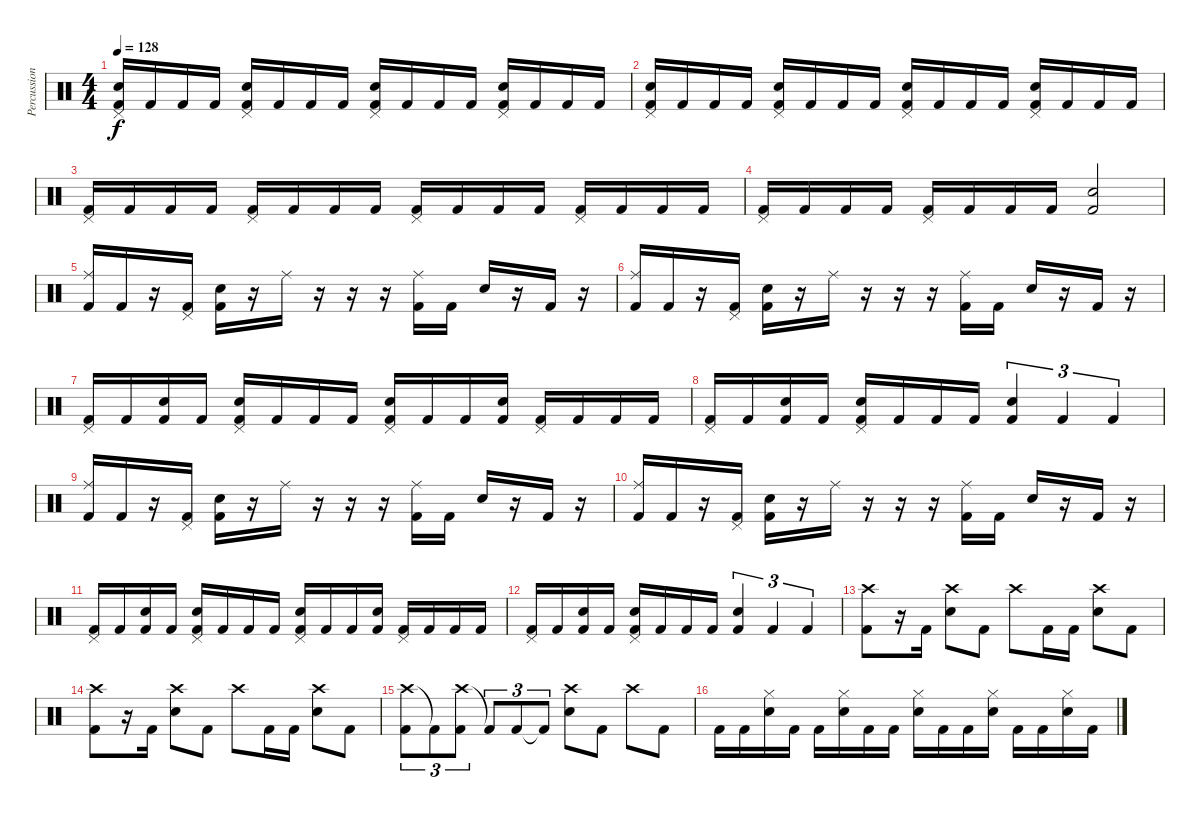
\track ("Percussion" "Percussion") {instrument percussion}
\staff {score}
\articulation defaults
\ts (4 4)
\tempo 128
\clef neutral
\ks c
("Pedal Hi-Hat (hit)" "Snare (hit) 2" "Kick (hit) 2").16{dy f} "Kick (hit) 2".16 "Kick (hit) 2".16 "Kick (hit) 2".16 ("Pedal Hi-Hat (hit)" "Snare (hit) 2" "Kick (hit) 2").16 "Kick (hit) 2".16 "Kick (hit) 2".16 "Kick (hit) 2".16 ("Pedal Hi-Hat (hit)" "Snare (hit) 2" "Kick (hit) 2").16 "Kick (hit) 2".16 "Kick (hit) 2".16 "Kick (hit) 2".16 ("Pedal Hi-Hat (hit)" "Snare (hit) 2" "Kick (hit) 2").16 "Kick (hit) 2".16 "Kick (hit) 2".16 "Kick (hit) 2".16 |
("Pedal Hi-Hat (hit)" "Snare (hit) 2" "Kick (hit) 2").16 "Kick (hit) 2".16 "Kick (hit) 2".16 "Kick (hit) 2".16 ("Pedal Hi-Hat (hit)" "Snare (hit) 2" "Kick (hit) 2").16 "Kick (hit) 2".16 "Kick (hit) 2".16 "Kick (hit) 2".16 ("Pedal Hi-Hat (hit)" "Snare (hit) 2" "Kick (hit) 2").16 "Kick (hit) 2".16 "Kick (hit) 2".16 "Kick (hit) 2".16 ("Pedal Hi-Hat (hit)" "Snare (hit) 2" "Kick (hit) 2").16 "Kick (hit) 2".16 "Kick (hit) 2".16 "Kick (hit) 2".16 |
("Pedal Hi-Hat (hit)" "Kick (hit) 2").16 "Kick (hit) 2".16 "Kick (hit) 2".16 "Kick (hit) 2".16 ("Pedal Hi-Hat (hit)" "Kick (hit) 2").16 "Kick (hit) 2".16 "Kick (hit) 2".16 "Kick (hit) 2".16 ("Pedal Hi-Hat (hit)" "Kick (hit) 2").16 "Kick (hit) 2".16 "Kick (hit) 2".16 "Kick (hit) 2".16 ("Pedal Hi-Hat (hit)" "Kick (hit) 2").16 "Kick (hit) 2".16 "Kick (hit) 2".16 "Kick (hit) 2".16 |
("Pedal Hi-Hat (hit)" "Kick (hit) 2").16 "Kick (hit) 2".16 "Kick (hit) 2".16 "Kick (hit) 2".16 ("Pedal Hi-Hat (hit)" "Kick (hit) 2").16 "Kick (hit) 2".16 "Kick (hit) 2".16 "Kick (hit) 2".16 ("Snare (hit) 2" "Kick (hit) 2").2 |
("Ride (middle)" "Kick (hit) 2").16 "Kick (hit) 2".16 r.16 ("Pedal Hi-Hat (hit)" "Kick (hit) 2").16 ("Snare (hit) 2" "Kick (hit) 2").16 r.16 "Ride (middle)".16 r.16 r.16 r.16 ("Ride (middle)" "Kick (hit) 2").16 "Kick (hit) 2".16 "Snare (hit) 2".16 r.16 "Kick (hit) 2".16 r.16 |
("Ride (middle)" "Kick (hit) 2").16 "Kick (hit) 2".16 r.16 ("Pedal Hi-Hat (hit)" "Kick (hit) 2").16 ("Snare (hit) 2" "Kick (hit) 2").16 r.16 "Ride (middle)".16 r.16 r.16 r.16 ("Ride (middle)" "Kick (hit) 2").16 "Kick (hit) 2".16 "Snare (hit) 2".16 r.16 "Kick (hit) 2".16 r.16 |
("Pedal Hi-Hat (hit)" "Kick (hit) 2").16 "Kick (hit) 2".16 ("Snare (hit) 2" "Kick (hit) 2").16 "Kick (hit) 2".16 ("Pedal Hi-Hat (hit)" "Snare (hit) 2" "Kick (hit) 2").16 "Kick (hit) 2".16 "Kick (hit) 2".16 "Kick (hit) 2".16 ("Pedal Hi-Hat (hit)" "Snare (hit) 2" "Kick (hit) 2").16 "Kick (hit) 2".16 "Kick (hit) 2".16 ("Snare (hit) 2" "Kick (hit) 2").16 ("Pedal Hi-Hat (hit)" "Kick (hit) 2").16 "Kick (hit) 2".16 "Kick (hit) 2".16 "Kick (hit) 2".16 |
("Pedal Hi-Hat (hit)" "Kick (hit) 2").16 "Kick (hit) 2".16 ("Snare (hit) 2" "Kick (hit) 2").16 "Kick (hit) 2".16 ("Pedal Hi-Hat (hit)" "Snare (hit) 2" "Kick (hit) 2").16 "Kick (hit) 2".16 "Kick (hit) 2".16 "Kick (hit) 2".16 ("Snare (hit) 2" "Kick (hit) 2").4{tu (3 2)} "Kick (hit) 2".4{tu (3 2)} "Kick (hit) 2".4{tu (3 2)} |
("Ride (middle)" "Kick (hit) 2").16 "Kick (hit) 2".16 r.16 ("Pedal Hi-Hat (hit)" "Kick (hit) 2").16 ("Snare (hit) 2" "Kick (hit) 2").16 r.16 "Ride (middle)".16 r.16 r.16 r.16 ("Ride (middle)" "Kick (hit) 2").16 "Kick (hit) 2".16 "Snare (hit) 2".16 r.16 "Kick (hit) 2".16 r.16 |
("Ride (middle)" "Kick (hit) 2").16 "Kick (hit) 2".16 r.16 ("Pedal Hi-Hat (hit)" "Kick (hit) 2").16 ("Snare (hit) 2" "Kick (hit) 2").16 r.16 "Ride (middle)".16 r.16 r.16 r.16 ("Ride (middle)" "Kick (hit) 2").16 "Kick (hit) 2".16 "Snare (hit) 2".16 r.16 "Kick (hit) 2".16 r.16 |
("Pedal Hi-Hat (hit)" "Kick (hit) 2").16 "Kick (hit) 2".16 ("Snare (hit) 2" "Kick (hit) 2").16 "Kick (hit) 2".16 ("Pedal Hi-Hat (hit)" "Snare (hit) 2" "Kick (hit) 2").16 "Kick (hit) 2".16 "Kick (hit) 2".16 "Kick (hit) 2".16 ("Pedal Hi-Hat (hit)" "Snare (hit) 2" "Kick (hit) 2").16 "Kick (hit) 2".16 "Kick (hit) 2".16 ("Snare (hit) 2" "Kick (hit) 2").16 ("Pedal Hi-Hat (hit)" "Kick (hit) 2").16 "Kick (hit) 2".16 "Kick (hit) 2".16 "Kick (hit) 2".16 |
("Pedal Hi-Hat (hit)" "Kick (hit) 2").16 "Kick (hit) 2".16 ("Snare (hit) 2" "Kick (hit) 2").16 "Kick (hit) 2".16 ("Pedal Hi-Hat (hit)" "Snare (hit) 2" "Kick (hit) 2").16 "Kick (hit) 2".16 "Kick (hit) 2".16 "Kick (hit) 2".16 ("Snare (hit) 2" "Kick (hit) 2").4{tu (3 2)} "Kick (hit) 2".4{tu (3 2)} "Kick (hit) 2".4{tu (3 2)} |
("Crash high (hit)" "Kick (hit) 2").8 r.16 "Kick (hit) 2".16 ("Crash high (hit)" "Snare (hit) 2").8 "Kick (hit) 2".8 "Crash high (hit)".8 "Kick (hit) 2".16 "Kick (hit) 2".16 ("Crash high (hit)" "Snare (hit) 2").8 "Kick (hit) 2".8 |
("Crash high (hit)" "Kick (hit) 2").8 r.16 "Kick (hit) 2".16 ("Crash high (hit)" "Snare (hit) 2").8 "Kick (hit) 2".8 "Crash high (hit)".8 "Kick (hit) 2".16 "Kick (hit) 2".16 ("Crash high (hit)" "Snare (hit) 2").8 "Kick (hit) 2".8 |
("Crash high (hit)" "Kick (hit) 2").8{tu (3 2)} "Kick (hit) 2"{t}.8{tu (3 2)} ("Crash high (hit)" "Kick (hit) 2").8{tu (3 2)} "Kick (hit) 2"{t}.8{tu (3 2)} "Kick (hit) 2".8{tu (3 2)} "Kick (hit) 2"{t}.8{tu (3 2)} ("Crash high (hit)" "Snare (hit) 2").8 "Kick (hit) 2".8 "Crash high (hit)".8 "Kick (hit) 2".8 |
"Kick (hit) 2".16 "Kick (hit) 2".16 ("Hi-Hat (closed)" "Snare (hit) 2").16 "Kick (hit) 2".16 "Kick (hit) 2".16 ("Hi-Hat (closed)" "Snare (hit) 2").16 "Kick (hit) 2".16 "Kick (hit) 2".16 ("Hi-Hat (closed)" "Snare (hit) 2").16 "Kick (hit) 2".16 "Kick (hit) 2".16 ("Hi-Hat (closed)" "Snare (hit) 2").16 "Kick (hit) 2".16 "Kick (hit) 2".16 ("Hi-Hat (closed)" "Snare (hit) 2").16 "Kick (hit) 2".16
